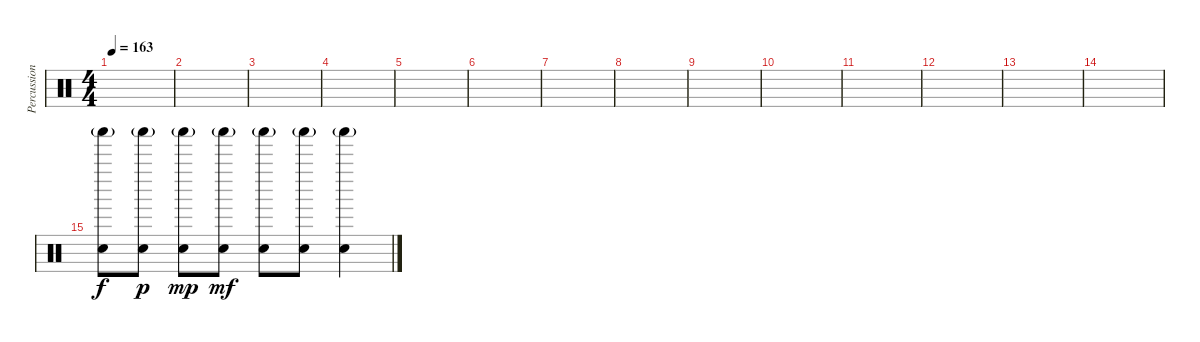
\track ("Percussion" "Percussion") {instrument percussion}
\staff {score}
\articulation defaults
\ts (4 4)
\tempo 163
\clef neutral
\ks c
|
|
|
|
|
|
|
|
|
|
|
|
|
|
("Shaker (hit)"{g} "Snare (hit) 2").8 ("Shaker (hit)"{g} "Snare (hit) 2").8{dy p} ("Shaker (hit)"{g} "Snare (hit) 2").8{dy mp} ("Shaker (hit)"{g} "Snare (hit) 2").8{dy mf} ("Shaker (hit)"{g} "Snare (hit) 2").8 ("Shaker (hit)"{g} "Snare (hit) 2").8 ("Shaker (hit)"{g} "Snare (hit) 2").4
